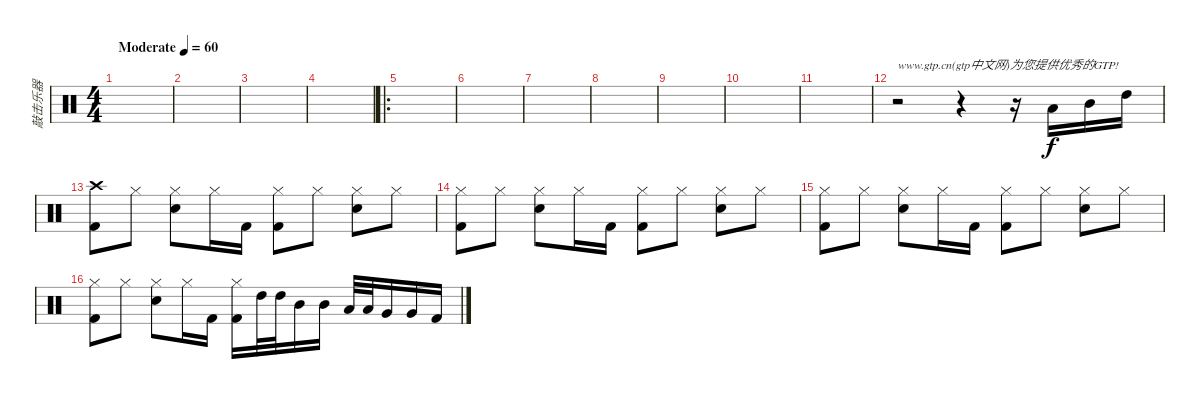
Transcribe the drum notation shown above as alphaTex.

\track ("敲击乐器" "敲击乐器") {instrument percussion}
\staff {score}
\articulation defaults
\ts (4 4)
\tempo (60 "Moderate")
\clef neutral
\ks c
|
|
|
|
\ro
|
|
|
|
|
|
|
r.2{txt "www.gtp.cn(gtp中文网)为您提供优秀的GTP!"} r.4 r.16 "Low Tom (hit)".16 "Mid Tom (hit)".16 "High Tom (hit)".16 |
("Crash high (hit)" "Kick (hit) 2").8 "Hi-Hat (closed)".8 ("Hi-Hat (closed)" "Snare (hit) 2").8 "Hi-Hat (closed)".16 "Kick (hit) 2".16 ("Hi-Hat (closed)" "Kick (hit) 2").8 "Hi-Hat (closed)".8 ("Hi-Hat (closed)" "Snare (hit) 2").8 "Hi-Hat (closed)".8 |
("Hi-Hat (closed)" "Kick (hit) 2").8 "Hi-Hat (closed)".8 ("Hi-Hat (closed)" "Snare (hit) 2").8 "Hi-Hat (closed)".16 "Kick (hit) 2".16 ("Hi-Hat (closed)" "Kick (hit) 2").8 "Hi-Hat (closed)".8 ("Hi-Hat (closed)" "Snare (hit) 2").8 "Hi-Hat (closed)".8 |
("Hi-Hat (closed)" "Kick (hit) 2").8 "Hi-Hat (closed)".8 ("Hi-Hat (closed)" "Snare (hit) 2").8 "Hi-Hat (closed)".16 "Kick (hit) 2".16 ("Hi-Hat (closed)" "Kick (hit) 2").8 "Hi-Hat (closed)".8 ("Hi-Hat (closed)" "Snare (hit) 2").8 "Hi-Hat (closed)".8 |
("Hi-Hat (closed)" "Kick (hit) 2").8 "Hi-Hat (closed)".8 ("Hi-Hat (closed)" "Snare (hit) 2").8 "Hi-Hat (closed)".16 "Kick (hit) 2".16 ("Hi-Hat (closed)" "Kick (hit) 2").16 "High Tom (hit)".32 "High Tom (hit)".32 "Mid Tom (hit)".16 "Mid Tom (hit)".16 "Low Tom (hit)".32 "Low Tom (hit)".32 "Very Low Tom (hit)".16 "Very Low Tom (hit)".16 "Kick (hit) 2".16
